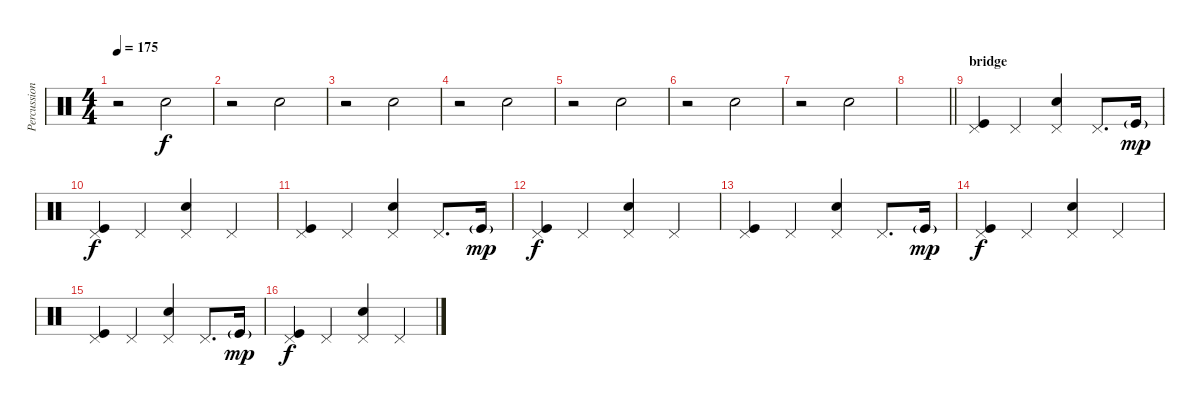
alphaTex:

\track ("Percussion" "Percussion") {instrument percussion}
\staff {score}
\articulation defaults
\ts (4 4)
\tempo 175
\clef neutral
\ks c
r.2{dy f} "Hand Clap (hit)".2 |
r.2 "Hand Clap (hit)".2 |
r.2 "Hand Clap (hit)".2 |
r.2 "Hand Clap (hit)".2 |
r.2 "Hand Clap (hit)".2 |
r.2 "Hand Clap (hit)".2 |
r.2 "Hand Clap (hit)".2 |
\barLineRight lightlight
|
\section ("" "bridge")
("Pedal Hi-Hat (hit)" "Kick (hit)").4 "Pedal Hi-Hat (hit)".4 ("Pedal Hi-Hat (hit)" "Electric Snare (hit)").4 "Pedal Hi-Hat (hit)".8{d} "Kick (hit)"{g}.16{dy mp} |
("Pedal Hi-Hat (hit)" "Kick (hit)").4{dy f} "Pedal Hi-Hat (hit)".4 ("Pedal Hi-Hat (hit)" "Electric Snare (hit)").4 "Pedal Hi-Hat (hit)".4 |
("Pedal Hi-Hat (hit)" "Kick (hit)").4 "Pedal Hi-Hat (hit)".4 ("Pedal Hi-Hat (hit)" "Electric Snare (hit)").4 "Pedal Hi-Hat (hit)".8{d} "Kick (hit)"{g}.16{dy mp} |
("Pedal Hi-Hat (hit)" "Kick (hit)").4{dy f} "Pedal Hi-Hat (hit)".4 ("Pedal Hi-Hat (hit)" "Electric Snare (hit)").4 "Pedal Hi-Hat (hit)".4 |
("Pedal Hi-Hat (hit)" "Kick (hit)").4 "Pedal Hi-Hat (hit)".4 ("Pedal Hi-Hat (hit)" "Electric Snare (hit)").4 "Pedal Hi-Hat (hit)".8{d} "Kick (hit)"{g}.16{dy mp} |
("Pedal Hi-Hat (hit)" "Kick (hit)").4{dy f} "Pedal Hi-Hat (hit)".4 ("Pedal Hi-Hat (hit)" "Electric Snare (hit)").4 "Pedal Hi-Hat (hit)".4 |
("Pedal Hi-Hat (hit)" "Kick (hit)").4 "Pedal Hi-Hat (hit)".4 ("Pedal Hi-Hat (hit)" "Electric Snare (hit)").4 "Pedal Hi-Hat (hit)".8{d} "Kick (hit)"{g}.16{dy mp} |
("Pedal Hi-Hat (hit)" "Kick (hit)").4{dy f} "Pedal Hi-Hat (hit)".4 ("Pedal Hi-Hat (hit)" "Electric Snare (hit)").4 "Pedal Hi-Hat (hit)".4
